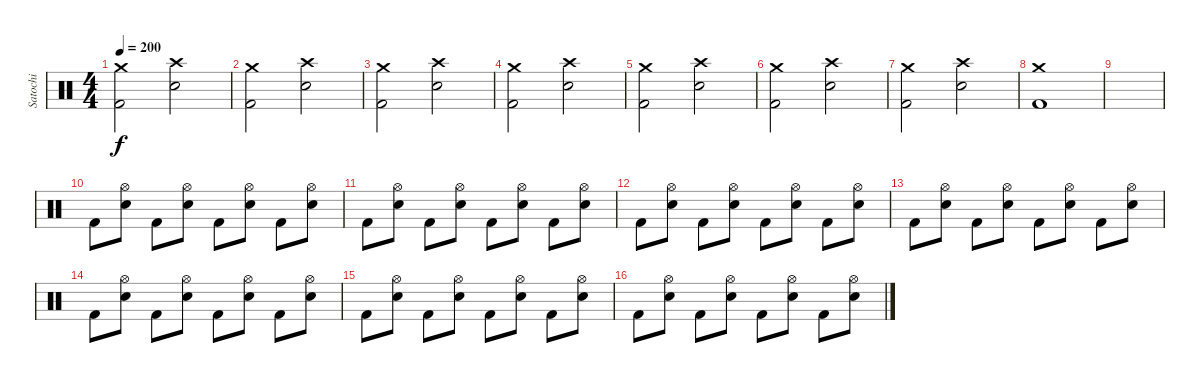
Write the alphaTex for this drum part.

\track ("Satochi" "Satochi") {instrument percussion}
\staff {score}
\articulation defaults
\ts (4 4)
\tempo 200
\clef neutral
\ks c
("Crash medium (hit)" "Kick (hit) 2").2{dy f} ("Crash high (hit)" "Electric Snare (hit)").2 |
("Crash medium (hit)" "Kick (hit) 2").2 ("Crash high (hit)" "Electric Snare (hit)").2 |
("Crash medium (hit)" "Kick (hit) 2").2 ("Crash high (hit)" "Electric Snare (hit)").2 |
("Crash medium (hit)" "Kick (hit) 2").2 ("Crash high (hit)" "Electric Snare (hit)").2 |
("Crash medium (hit)" "Kick (hit) 2").2 ("Crash high (hit)" "Electric Snare (hit)").2 |
("Crash medium (hit)" "Kick (hit) 2").2 ("Crash high (hit)" "Electric Snare (hit)").2 |
("Crash medium (hit)" "Kick (hit) 2").2 ("Crash high (hit)" "Electric Snare (hit)").2 |
("Crash medium (hit)" "Kick (hit) 2").1 |
|
"Kick (hit) 2".8 ("Hi-Hat (open)" "Electric Snare (hit)").8 "Kick (hit) 2".8 ("Hi-Hat (open)" "Electric Snare (hit)").8 "Kick (hit) 2".8 ("Hi-Hat (open)" "Electric Snare (hit)").8 "Kick (hit) 2".8 ("Hi-Hat (open)" "Electric Snare (hit)").8 |
"Kick (hit) 2".8 ("Hi-Hat (open)" "Electric Snare (hit)").8 "Kick (hit) 2".8 ("Hi-Hat (open)" "Electric Snare (hit)").8 "Kick (hit) 2".8 ("Hi-Hat (open)" "Electric Snare (hit)").8 "Kick (hit) 2".8 ("Hi-Hat (open)" "Electric Snare (hit)").8 |
"Kick (hit) 2".8 ("Hi-Hat (open)" "Electric Snare (hit)").8 "Kick (hit) 2".8 ("Hi-Hat (open)" "Electric Snare (hit)").8 "Kick (hit) 2".8 ("Hi-Hat (open)" "Electric Snare (hit)").8 "Kick (hit) 2".8 ("Hi-Hat (open)" "Electric Snare (hit)").8 |
"Kick (hit) 2".8 ("Hi-Hat (open)" "Electric Snare (hit)").8 "Kick (hit) 2".8 ("Hi-Hat (open)" "Electric Snare (hit)").8 "Kick (hit) 2".8 ("Hi-Hat (open)" "Electric Snare (hit)").8 "Kick (hit) 2".8 ("Hi-Hat (open)" "Electric Snare (hit)").8 |
"Kick (hit) 2".8 ("Hi-Hat (open)" "Electric Snare (hit)").8 "Kick (hit) 2".8 ("Hi-Hat (open)" "Electric Snare (hit)").8 "Kick (hit) 2".8 ("Hi-Hat (open)" "Electric Snare (hit)").8 "Kick (hit) 2".8 ("Hi-Hat (open)" "Electric Snare (hit)").8 |
"Kick (hit) 2".8 ("Hi-Hat (open)" "Electric Snare (hit)").8 "Kick (hit) 2".8 ("Hi-Hat (open)" "Electric Snare (hit)").8 "Kick (hit) 2".8 ("Hi-Hat (open)" "Electric Snare (hit)").8 "Kick (hit) 2".8 ("Hi-Hat (open)" "Electric Snare (hit)").8 |
"Kick (hit) 2".8 ("Hi-Hat (open)" "Electric Snare (hit)").8 "Kick (hit) 2".8 ("Hi-Hat (open)" "Electric Snare (hit)").8 "Kick (hit) 2".8 ("Hi-Hat (open)" "Electric Snare (hit)").8 "Kick (hit) 2".8 ("Hi-Hat (open)" "Electric Snare (hit)").8
